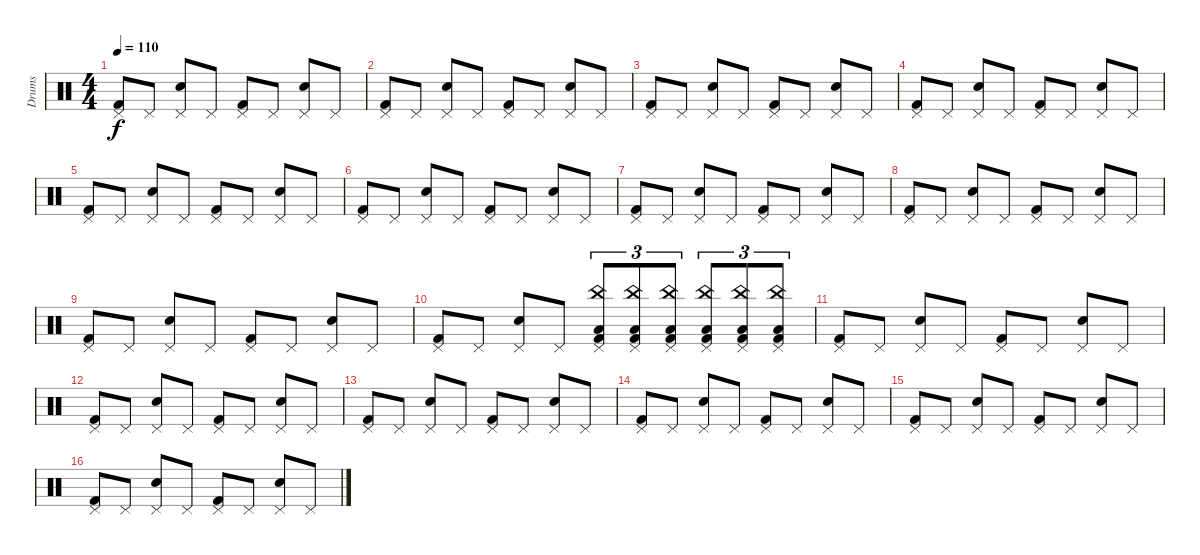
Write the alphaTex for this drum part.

\track ("Drums" "Drums") {instrument percussion}
\staff {score}
\articulation defaults
\ts (4 4)
\tempo 110
\clef neutral
\ks c
("Pedal Hi-Hat (hit)" "Kick (hit) 2").8{dy f} "Pedal Hi-Hat (hit)".8 ("Pedal Hi-Hat (hit)" "Electric Snare (hit)").8 "Pedal Hi-Hat (hit)".8 ("Pedal Hi-Hat (hit)" "Kick (hit) 2").8 "Pedal Hi-Hat (hit)".8 ("Pedal Hi-Hat (hit)" "Electric Snare (hit)").8 "Pedal Hi-Hat (hit)".8 |
("Pedal Hi-Hat (hit)" "Kick (hit) 2").8 "Pedal Hi-Hat (hit)".8 ("Pedal Hi-Hat (hit)" "Electric Snare (hit)").8 "Pedal Hi-Hat (hit)".8 ("Pedal Hi-Hat (hit)" "Kick (hit) 2").8 "Pedal Hi-Hat (hit)".8 ("Pedal Hi-Hat (hit)" "Electric Snare (hit)").8 "Pedal Hi-Hat (hit)".8 |
("Pedal Hi-Hat (hit)" "Kick (hit) 2").8 "Pedal Hi-Hat (hit)".8 ("Pedal Hi-Hat (hit)" "Electric Snare (hit)").8 "Pedal Hi-Hat (hit)".8 ("Pedal Hi-Hat (hit)" "Kick (hit) 2").8 "Pedal Hi-Hat (hit)".8 ("Pedal Hi-Hat (hit)" "Electric Snare (hit)").8 "Pedal Hi-Hat (hit)".8 |
("Pedal Hi-Hat (hit)" "Kick (hit) 2").8 "Pedal Hi-Hat (hit)".8 ("Pedal Hi-Hat (hit)" "Electric Snare (hit)").8 "Pedal Hi-Hat (hit)".8 ("Pedal Hi-Hat (hit)" "Kick (hit) 2").8 "Pedal Hi-Hat (hit)".8 ("Pedal Hi-Hat (hit)" "Electric Snare (hit)").8 "Pedal Hi-Hat (hit)".8 |
("Pedal Hi-Hat (hit)" "Kick (hit) 2").8 "Pedal Hi-Hat (hit)".8 ("Pedal Hi-Hat (hit)" "Electric Snare (hit)").8 "Pedal Hi-Hat (hit)".8 ("Pedal Hi-Hat (hit)" "Kick (hit) 2").8 "Pedal Hi-Hat (hit)".8 ("Pedal Hi-Hat (hit)" "Electric Snare (hit)").8 "Pedal Hi-Hat (hit)".8 |
("Pedal Hi-Hat (hit)" "Kick (hit) 2").8 "Pedal Hi-Hat (hit)".8 ("Pedal Hi-Hat (hit)" "Electric Snare (hit)").8 "Pedal Hi-Hat (hit)".8 ("Pedal Hi-Hat (hit)" "Kick (hit) 2").8 "Pedal Hi-Hat (hit)".8 ("Pedal Hi-Hat (hit)" "Electric Snare (hit)").8 "Pedal Hi-Hat (hit)".8 |
("Pedal Hi-Hat (hit)" "Kick (hit) 2").8 "Pedal Hi-Hat (hit)".8 ("Pedal Hi-Hat (hit)" "Electric Snare (hit)").8 "Pedal Hi-Hat (hit)".8 ("Pedal Hi-Hat (hit)" "Kick (hit) 2").8 "Pedal Hi-Hat (hit)".8 ("Pedal Hi-Hat (hit)" "Electric Snare (hit)").8 "Pedal Hi-Hat (hit)".8 |
("Pedal Hi-Hat (hit)" "Kick (hit) 2").8 "Pedal Hi-Hat (hit)".8 ("Pedal Hi-Hat (hit)" "Electric Snare (hit)").8 "Pedal Hi-Hat (hit)".8 ("Pedal Hi-Hat (hit)" "Kick (hit) 2").8 "Pedal Hi-Hat (hit)".8 ("Pedal Hi-Hat (hit)" "Electric Snare (hit)").8 "Pedal Hi-Hat (hit)".8 |
("Pedal Hi-Hat (hit)" "Kick (hit) 2").8 "Pedal Hi-Hat (hit)".8 ("Pedal Hi-Hat (hit)" "Electric Snare (hit)").8 "Pedal Hi-Hat (hit)".8 ("Pedal Hi-Hat (hit)" "Kick (hit) 2").8 "Pedal Hi-Hat (hit)".8 ("Pedal Hi-Hat (hit)" "Electric Snare (hit)").8 "Pedal Hi-Hat (hit)".8 |
("Pedal Hi-Hat (hit)" "Kick (hit) 2").8 "Pedal Hi-Hat (hit)".8 ("Pedal Hi-Hat (hit)" "Electric Snare (hit)").8 "Pedal Hi-Hat (hit)".8 ("Pedal Hi-Hat (hit)" "Kick (hit) 2" "China (hit)" "Low Floor Tom (hit)").8{tu (3 2)} ("Pedal Hi-Hat (hit)" "Kick (hit) 2" "China (hit)" "Low Floor Tom (hit)").8{tu (3 2)} ("Pedal Hi-Hat (hit)" "Kick (hit) 2" "China (hit)" "Low Floor Tom (hit)").8{tu (3 2)} ("Pedal Hi-Hat (hit)" "Kick (hit) 2" "China (hit)" "Low Floor Tom (hit)").8{tu (3 2)} ("Pedal Hi-Hat (hit)" "Kick (hit) 2" "China (hit)" "Low Floor Tom (hit)").8{tu (3 2)} ("Pedal Hi-Hat (hit)" "Kick (hit) 2" "China (hit)" "Low Floor Tom (hit)").8{tu (3 2)} |
("Pedal Hi-Hat (hit)" "Kick (hit) 2").8 "Pedal Hi-Hat (hit)".8 ("Pedal Hi-Hat (hit)" "Electric Snare (hit)").8 "Pedal Hi-Hat (hit)".8 ("Pedal Hi-Hat (hit)" "Kick (hit) 2").8 "Pedal Hi-Hat (hit)".8 ("Pedal Hi-Hat (hit)" "Electric Snare (hit)").8 "Pedal Hi-Hat (hit)".8 |
("Pedal Hi-Hat (hit)" "Kick (hit) 2").8 "Pedal Hi-Hat (hit)".8 ("Pedal Hi-Hat (hit)" "Electric Snare (hit)").8 "Pedal Hi-Hat (hit)".8 ("Pedal Hi-Hat (hit)" "Kick (hit) 2").8 "Pedal Hi-Hat (hit)".8 ("Pedal Hi-Hat (hit)" "Electric Snare (hit)").8 "Pedal Hi-Hat (hit)".8 |
("Pedal Hi-Hat (hit)" "Kick (hit) 2").8 "Pedal Hi-Hat (hit)".8 ("Pedal Hi-Hat (hit)" "Electric Snare (hit)").8 "Pedal Hi-Hat (hit)".8 ("Pedal Hi-Hat (hit)" "Kick (hit) 2").8 "Pedal Hi-Hat (hit)".8 ("Pedal Hi-Hat (hit)" "Electric Snare (hit)").8 "Pedal Hi-Hat (hit)".8 |
("Pedal Hi-Hat (hit)" "Kick (hit) 2").8 "Pedal Hi-Hat (hit)".8 ("Pedal Hi-Hat (hit)" "Electric Snare (hit)").8 "Pedal Hi-Hat (hit)".8 ("Pedal Hi-Hat (hit)" "Kick (hit) 2").8 "Pedal Hi-Hat (hit)".8 ("Pedal Hi-Hat (hit)" "Electric Snare (hit)").8 "Pedal Hi-Hat (hit)".8 |
("Pedal Hi-Hat (hit)" "Kick (hit) 2").8 "Pedal Hi-Hat (hit)".8 ("Pedal Hi-Hat (hit)" "Electric Snare (hit)").8 "Pedal Hi-Hat (hit)".8 ("Pedal Hi-Hat (hit)" "Kick (hit) 2").8 "Pedal Hi-Hat (hit)".8 ("Pedal Hi-Hat (hit)" "Electric Snare (hit)").8 "Pedal Hi-Hat (hit)".8 |
("Pedal Hi-Hat (hit)" "Kick (hit) 2").8 "Pedal Hi-Hat (hit)".8 ("Pedal Hi-Hat (hit)" "Electric Snare (hit)").8 "Pedal Hi-Hat (hit)".8 ("Pedal Hi-Hat (hit)" "Kick (hit) 2").8 "Pedal Hi-Hat (hit)".8 ("Pedal Hi-Hat (hit)" "Electric Snare (hit)").8 "Pedal Hi-Hat (hit)".8
